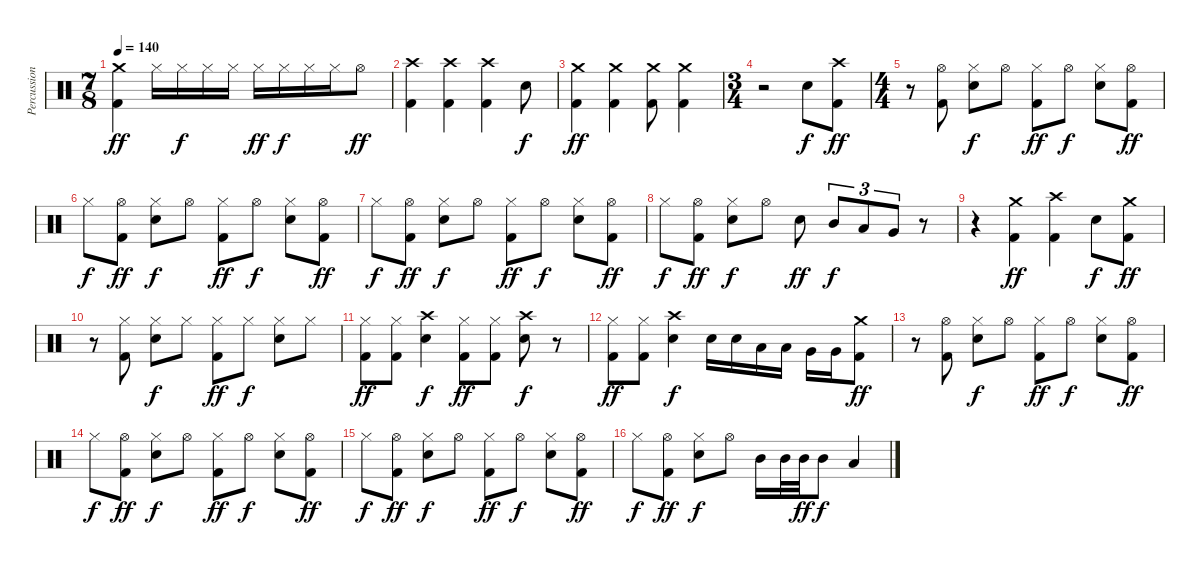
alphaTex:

\track ("Percussion" "Percussion") {instrument percussion}
\staff {score}
\articulation defaults
\ts (7 8)
\tempo 140
\clef neutral
\ks c
("Kick (hit) 2" "Crash medium (hit)").4{dy ff} "Hi-Hat (closed)".16 "Hi-Hat (closed)".16{dy f} "Hi-Hat (closed)".16 "Hi-Hat (closed)".16 "Hi-Hat (closed)".16{dy ff} "Hi-Hat (closed)".16{dy f} "Hi-Hat (closed)".16 "Hi-Hat (closed)".16 "Hi-Hat (open)".8{dy ff} |
("Kick (hit) 2" "Crash high (hit)").4 ("Kick (hit) 2" "Crash high (hit)").4 ("Kick (hit) 2" "Crash high (hit)").4 "Snare (hit) 2".8{dy f} |
("Kick (hit) 2" "Crash medium (hit)").4{dy ff} ("Kick (hit) 2" "Crash medium (hit)").4 ("Kick (hit) 2" "Crash medium (hit)").8 ("Kick (hit) 2" "Crash medium (hit)").4 |
\ts (3 4)
r.2 "Snare (hit) 2".8{dy f} ("Kick (hit) 2" "Crash high (hit)").8{dy ff} |
\ts (4 4)
r.8 ("Kick (hit) 2" "Hi-Hat (open)").8 ("Snare (hit) 2" "Hi-Hat (closed)").8{dy f} "Hi-Hat (open)".8 ("Kick (hit) 2" "Hi-Hat (closed)").8{dy ff} "Hi-Hat (open)".8{dy f} ("Snare (hit) 2" "Hi-Hat (closed)").8 ("Kick (hit) 2" "Hi-Hat (open)").8{dy ff} |
"Hi-Hat (closed)".8{dy f} ("Kick (hit) 2" "Hi-Hat (open)").8{dy ff} ("Snare (hit) 2" "Hi-Hat (closed)").8{dy f} "Hi-Hat (open)".8 ("Kick (hit) 2" "Hi-Hat (closed)").8{dy ff} "Hi-Hat (open)".8{dy f} ("Snare (hit) 2" "Hi-Hat (closed)").8 ("Kick (hit) 2" "Hi-Hat (open)").8{dy ff} |
"Hi-Hat (closed)".8{dy f} ("Kick (hit) 2" "Hi-Hat (open)").8{dy ff} ("Snare (hit) 2" "Hi-Hat (closed)").8{dy f} "Hi-Hat (open)".8 ("Kick (hit) 2" "Hi-Hat (closed)").8{dy ff} "Hi-Hat (open)".8{dy f} ("Snare (hit) 2" "Hi-Hat (closed)").8 ("Kick (hit) 2" "Hi-Hat (open)").8{dy ff} |
"Hi-Hat (closed)".8{dy f} ("Kick (hit) 2" "Hi-Hat (open)").8{dy ff} ("Snare (hit) 2" "Hi-Hat (closed)").8{dy f} "Hi-Hat (open)".8 "Snare (hit) 2".8{dy ff} "Mid Tom (hit)".8{tu (3 2) dy f} "Low Tom (hit)".8{tu (3 2)} "Very Low Tom (hit)".8{tu (3 2)} r.8 |
r.4 ("Kick (hit) 2" "Crash medium (hit)").4{dy ff} ("Kick (hit) 2" "Crash high (hit)").4 "Snare (hit) 2".8{dy f} ("Kick (hit) 2" "Crash medium (hit)").8{dy ff} |
r.8 ("Kick (hit) 2" "Hi-Hat (closed)").8 ("Snare (hit) 2" "Hi-Hat (closed)").8{dy f} "Hi-Hat (closed)".8 ("Kick (hit) 2" "Hi-Hat (closed)").8{dy ff} "Hi-Hat (closed)".8{dy f} ("Snare (hit) 2" "Hi-Hat (closed)").8 "Hi-Hat (closed)".8 |
("Kick (hit) 2" "Hi-Hat (closed)").8{dy ff} ("Kick (hit) 2" "Hi-Hat (closed)").8 ("Snare (hit) 2" "Crash high (hit)").4{dy f} ("Kick (hit) 2" "Hi-Hat (closed)").8{dy ff} ("Kick (hit) 2" "Hi-Hat (closed)").8 ("Snare (hit) 2" "Crash high (hit)").8{dy f} r.8 |
("Kick (hit) 2" "Hi-Hat (closed)").8{dy ff} ("Kick (hit) 2" "Hi-Hat (closed)").8 ("Snare (hit) 2" "Crash high (hit)").4{dy f} "Snare (hit) 2".16 "Snare (hit) 2".16 "Low Tom (hit)".16 "Low Tom (hit)".16 "Very Low Tom (hit)".16 "Very Low Tom (hit)".16 ("Kick (hit) 2" "Crash medium (hit)").8{dy ff} |
r.8 ("Kick (hit) 2" "Hi-Hat (open)").8 ("Snare (hit) 2" "Hi-Hat (closed)").8{dy f} "Hi-Hat (open)".8 ("Kick (hit) 2" "Hi-Hat (closed)").8{dy ff} "Hi-Hat (open)".8{dy f} ("Snare (hit) 2" "Hi-Hat (closed)").8 ("Kick (hit) 2" "Hi-Hat (open)").8{dy ff} |
"Hi-Hat (closed)".8{dy f} ("Kick (hit) 2" "Hi-Hat (open)").8{dy ff} ("Snare (hit) 2" "Hi-Hat (closed)").8{dy f} "Hi-Hat (open)".8 ("Kick (hit) 2" "Hi-Hat (closed)").8{dy ff} "Hi-Hat (open)".8{dy f} ("Snare (hit) 2" "Hi-Hat (closed)").8 ("Kick (hit) 2" "Hi-Hat (open)").8{dy ff} |
"Hi-Hat (closed)".8{dy f} ("Kick (hit) 2" "Hi-Hat (open)").8{dy ff} ("Snare (hit) 2" "Hi-Hat (closed)").8{dy f} "Hi-Hat (open)".8 ("Kick (hit) 2" "Hi-Hat (closed)").8{dy ff} "Hi-Hat (open)".8{dy f} ("Snare (hit) 2" "Hi-Hat (closed)").8 ("Kick (hit) 2" "Hi-Hat (open)").8{dy ff} |
"Hi-Hat (closed)".8{dy f} ("Kick (hit) 2" "Hi-Hat (open)").8{dy ff} ("Snare (hit) 2" "Hi-Hat (closed)").8{dy f} "Hi-Hat (open)".8 "Mid Tom (hit)".16 "Mid Tom (hit)".32 "Mid Tom (hit)".32{dy ff} "Mid Tom (hit)".8{dy f} "Low Tom (hit)".4
